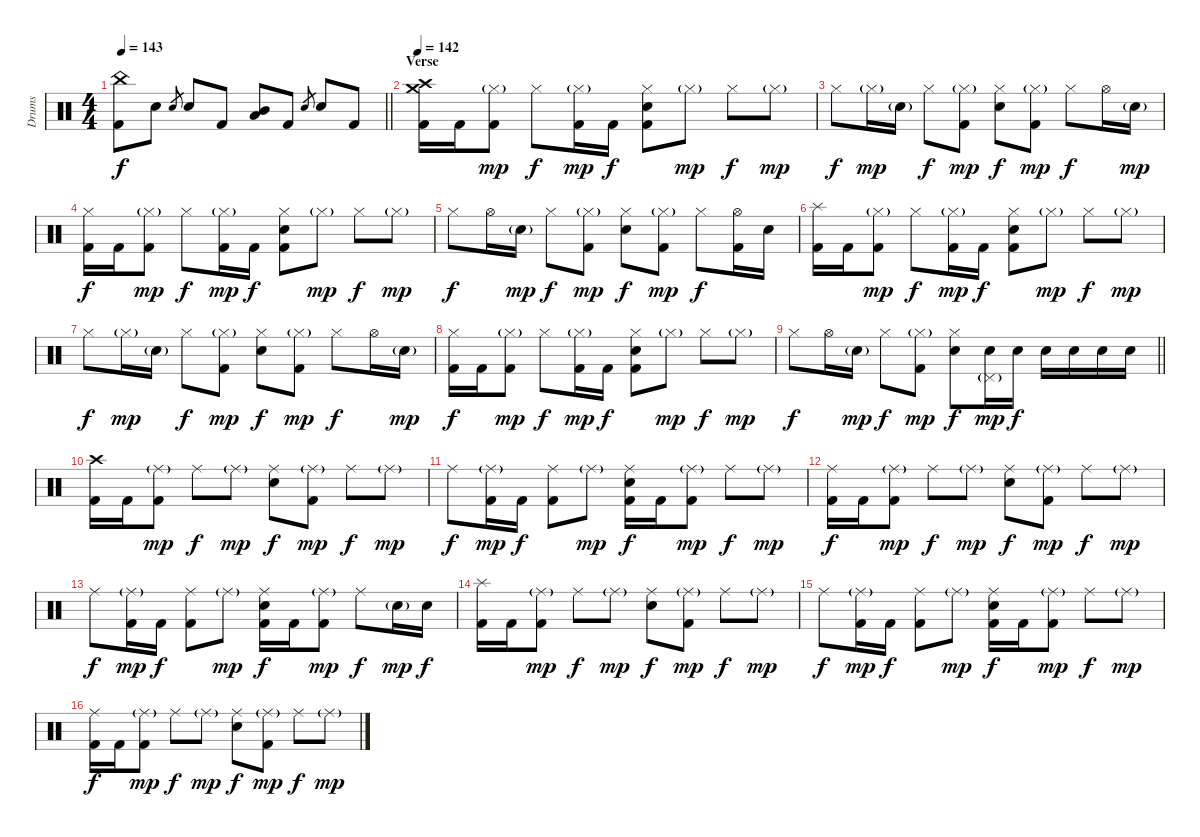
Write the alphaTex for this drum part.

\track ("Drums" "Drums") {instrument percussion}
\staff {score}
\articulation defaults
\ts (4 4)
\tempo 143
\clef neutral
\barLineRight lightlight
\ks c
("China (hit)" "Kick (hit) 2").8{dy f} "Electric Snare (hit)".8 "Electric Snare (hit)".8{gr} "Electric Snare (hit)".8 "Kick (hit) 2".8 ("Mid Tom (hit)" "Low Floor Tom (hit)").8{bu 60} "Kick (hit) 2".8 "Electric Snare (hit)".8{gr} "Electric Snare (hit)".8 "Kick (hit) 2".8 |
\section ("" "Verse")
\tempo 142
("Crash high (hit)" "Crash medium (hit)" "Kick (hit) 2").16 "Kick (hit) 2".16 ("Hi-Hat (closed)"{g} "Kick (hit) 2").8{dy mp} "Hi-Hat (closed)".8{dy f} ("Hi-Hat (closed)"{g} "Kick (hit) 2").16{dy mp} "Kick (hit) 2".16{dy f} ("Hi-Hat (closed)" "Electric Snare (hit)" "Kick (hit) 2").8 "Hi-Hat (closed)"{g}.8{dy mp} "Hi-Hat (closed)".8{dy f} "Hi-Hat (closed)"{g}.8{dy mp} |
"Hi-Hat (closed)".8{dy f} "Hi-Hat (closed)"{g}.16{dy mp} "Electric Snare (hit)"{g}.16 "Hi-Hat (closed)".8{dy f} ("Hi-Hat (closed)"{g} "Kick (hit) 2").8{dy mp} ("Hi-Hat (closed)" "Electric Snare (hit)").8{dy f} ("Hi-Hat (closed)"{g} "Kick (hit) 2").8{dy mp} "Hi-Hat (closed)".8{dy f} "Hi-Hat (open)".16 "Electric Snare (hit)"{g}.16{dy mp} |
("Hi-Hat (closed)" "Kick (hit) 2").16{dy f} "Kick (hit) 2".16 ("Hi-Hat (closed)"{g} "Kick (hit) 2").8{dy mp} "Hi-Hat (closed)".8{dy f} ("Hi-Hat (closed)"{g} "Kick (hit) 2").16{dy mp} "Kick (hit) 2".16{dy f} ("Hi-Hat (closed)" "Electric Snare (hit)" "Kick (hit) 2").8 "Hi-Hat (closed)"{g}.8{dy mp} "Hi-Hat (closed)".8{dy f} "Hi-Hat (closed)"{g}.8{dy mp} |
"Hi-Hat (closed)".8{dy f} "Hi-Hat (open)".16 "Electric Snare (hit)"{g}.16{dy mp} "Hi-Hat (closed)".8{dy f} ("Hi-Hat (closed)"{g} "Kick (hit) 2").8{dy mp} ("Hi-Hat (closed)" "Electric Snare (hit)").8{dy f} ("Hi-Hat (closed)"{g} "Kick (hit) 2").8{dy mp} "Hi-Hat (closed)".8{dy f} ("Hi-Hat (open)" "Kick (hit) 2").16 "Electric Snare (hit)".16 |
("Splash (hit)" "Kick (hit) 2").16 "Kick (hit) 2".16 ("Hi-Hat (closed)"{g} "Kick (hit) 2").8{dy mp} "Hi-Hat (closed)".8{dy f} ("Hi-Hat (closed)"{g} "Kick (hit) 2").16{dy mp} "Kick (hit) 2".16{dy f} ("Hi-Hat (closed)" "Electric Snare (hit)" "Kick (hit) 2").8 "Hi-Hat (closed)"{g}.8{dy mp} "Hi-Hat (closed)".8{dy f} "Hi-Hat (closed)"{g}.8{dy mp} |
"Hi-Hat (closed)".8{dy f} "Hi-Hat (closed)"{g}.16{dy mp} "Electric Snare (hit)"{g}.16 "Hi-Hat (closed)".8{dy f} ("Hi-Hat (closed)"{g} "Kick (hit) 2").8{dy mp} ("Hi-Hat (closed)" "Electric Snare (hit)").8{dy f} ("Hi-Hat (closed)"{g} "Kick (hit) 2").8{dy mp} "Hi-Hat (closed)".8{dy f} "Hi-Hat (open)".16 "Electric Snare (hit)"{g}.16{dy mp} |
("Hi-Hat (closed)" "Kick (hit) 2").16{dy f} "Kick (hit) 2".16 ("Hi-Hat (closed)"{g} "Kick (hit) 2").8{dy mp} "Hi-Hat (closed)".8{dy f} ("Hi-Hat (closed)"{g} "Kick (hit) 2").16{dy mp} "Kick (hit) 2".16{dy f} ("Hi-Hat (closed)" "Electric Snare (hit)" "Kick (hit) 2").8 "Hi-Hat (closed)"{g}.8{dy mp} "Hi-Hat (closed)".8{dy f} "Hi-Hat (closed)"{g}.8{dy mp} |
\barLineRight lightlight "Hi-Hat (closed)".8{dy f} "Hi-Hat (open)".16 "Electric Snare (hit)"{g}.16{dy mp} "Hi-Hat (closed)".8{dy f}
("Hi-Hat (closed)"{g} "Kick (hit) 2").8{dy mp} ("Hi-Hat (closed)" "Electric Snare (hit)").8{dy f} ("Pedal Hi-Hat (hit)"{g} "Electric Snare (hit)").16{dy mp} "Electric Snare (hit)".16{dy f} "Electric Snare (hit)".16 "Electric Snare (hit)".16 "Electric Snare (hit)".16 "Electric Snare (hit)".16 |
\section ("" "")
("Crash high (hit)" "Kick (hit) 2").16 "Kick (hit) 2".16 ("Ride (middle)"{g} "Kick (hit) 2").8{dy mp} "Ride (middle)".8{dy f} "Ride (middle)"{g}.8{dy mp} ("Ride (middle)" "Electric Snare (hit)").8{dy f} ("Ride (middle)"{g} "Kick (hit) 2").8{dy mp} "Ride (middle)".8{dy f} "Ride (middle)"{g}.8{dy mp} |
"Ride (middle)".8{dy f} ("Ride (middle)"{g} "Kick (hit) 2").16{dy mp} "Kick (hit) 2".16{dy f} ("Ride (middle)" "Kick (hit) 2").8 "Ride (middle)"{g}.8{dy mp} ("Ride (middle)" "Electric Snare (hit)" "Kick (hit) 2").16{dy f} "Kick (hit) 2".16 ("Ride (middle)"{g} "Kick (hit) 2").8{dy mp} "Ride (middle)".8{dy f} "Ride (middle)"{g}.8{dy mp} |
("Ride (middle)" "Kick (hit) 2").16{dy f} "Kick (hit) 2".16 ("Ride (middle)"{g} "Kick (hit) 2").8{dy mp} "Ride (middle)".8{dy f} "Ride (middle)"{g}.8{dy mp} ("Ride (middle)" "Electric Snare (hit)").8{dy f} ("Ride (middle)"{g} "Kick (hit) 2").8{dy mp} "Ride (middle)".8{dy f} "Ride (middle)"{g}.8{dy mp} |
"Ride (middle)".8{dy f} ("Ride (middle)"{g} "Kick (hit) 2").16{dy mp} "Kick (hit) 2".16{dy f} ("Ride (middle)" "Kick (hit) 2").8 "Ride (middle)"{g}.8{dy mp} ("Ride (middle)" "Electric Snare (hit)" "Kick (hit) 2").16{dy f} "Kick (hit) 2".16 ("Ride (middle)"{g} "Kick (hit) 2").8{dy mp} "Ride (middle)".8{dy f} "Electric Snare (hit)"{g}.16{dy mp} "Electric Snare (hit)".16{dy f} |
("Splash (hit)" "Kick (hit) 2").16 "Kick (hit) 2".16 ("Ride (middle)"{g} "Kick (hit) 2").8{dy mp} "Ride (middle)".8{dy f} "Ride (middle)"{g}.8{dy mp} ("Ride (middle)" "Electric Snare (hit)").8{dy f} ("Ride (middle)"{g} "Kick (hit) 2").8{dy mp} "Ride (middle)".8{dy f} "Ride (middle)"{g}.8{dy mp} |
"Ride (middle)".8{dy f} ("Ride (middle)"{g} "Kick (hit) 2").16{dy mp} "Kick (hit) 2".16{dy f} ("Ride (middle)" "Kick (hit) 2").8 "Ride (middle)"{g}.8{dy mp} ("Ride (middle)" "Electric Snare (hit)" "Kick (hit) 2").16{dy f} "Kick (hit) 2".16 ("Ride (middle)"{g} "Kick (hit) 2").8{dy mp} "Ride (middle)".8{dy f} "Ride (middle)"{g}.8{dy mp} |
("Ride (middle)" "Kick (hit) 2").16{dy f} "Kick (hit) 2".16 ("Ride (middle)"{g} "Kick (hit) 2").8{dy mp} "Ride (middle)".8{dy f} "Ride (middle)"{g}.8{dy mp} ("Ride (middle)" "Electric Snare (hit)").8{dy f} ("Ride (middle)"{g} "Kick (hit) 2").8{dy mp} "Ride (middle)".8{dy f} "Ride (middle)"{g}.8{dy mp}
